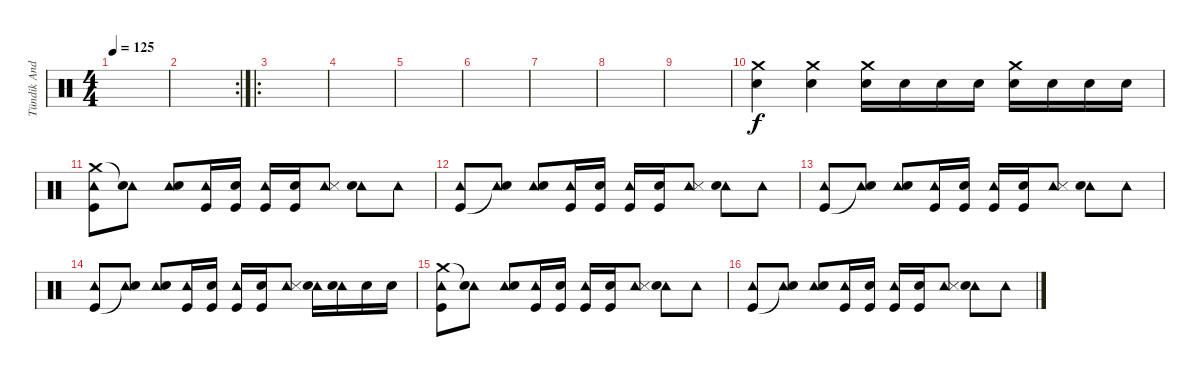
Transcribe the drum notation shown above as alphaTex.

\track ("Tündik András - Dob" "Tündik And") {instrument percussion}
\staff {score}
\articulation defaults
\ts (4 4)
\tempo 125
\clef neutral
\ks c
|
\rc 2
|
\ro
|
|
|
|
|
|
|
("Crash medium (hit)" "Snare (hit) 2").4 ("Crash medium (hit)" "Snare (hit) 2").4 ("Crash medium (hit)" "Snare (hit) 2").16 "Snare (hit) 2".16 "Snare (hit) 2".16 "Snare (hit) 2".16 ("Crash medium (hit)" "Snare (hit) 2").16 "Snare (hit) 2".16 "Snare (hit) 2".16 "Snare (hit) 2".16 |
("Tambourine (hit)" "Crash medium (hit)" "Kick (hit)").8 ("Tambourine (hit)" "Snare (hit)"{t}).8 ("Tambourine (hit)" "Snare (hit) 2").8 ("Tambourine (hit)" "Kick (hit)").16 ("Snare (hit) 2" "Kick (hit)").16 ("Tambourine (hit)" "Kick (hit)").16 ("Snare (hit) 2" "Kick (hit)").16 ("Tambourine (hit)" "Snare (side stick) 3").8 ("Tambourine (hit)" "Snare (hit) 2").8 "Tambourine (hit)".8 |
("Tambourine (hit)" "Kick (hit)").8 ("Tambourine (hit)" "Snare (hit)"{t}).8 ("Tambourine (hit)" "Snare (hit) 2").8 ("Tambourine (hit)" "Kick (hit)").16 ("Snare (hit) 2" "Kick (hit)").16 ("Tambourine (hit)" "Kick (hit)").16 ("Snare (hit) 2" "Kick (hit)").16 ("Tambourine (hit)" "Snare (side stick) 3").8 ("Tambourine (hit)" "Snare (hit) 2").8 "Tambourine (hit)".8 |
("Tambourine (hit)" "Kick (hit)").8 ("Tambourine (hit)" "Snare (hit)"{t}).8 ("Tambourine (hit)" "Snare (hit) 2").8 ("Tambourine (hit)" "Kick (hit)").16 ("Snare (hit) 2" "Kick (hit)").16 ("Tambourine (hit)" "Kick (hit)").16 ("Snare (hit) 2" "Kick (hit)").16 ("Tambourine (hit)" "Snare (side stick) 3").8 ("Tambourine (hit)" "Snare (hit) 2").8 "Tambourine (hit)".8 |
("Tambourine (hit)" "Kick (hit)").8 ("Tambourine (hit)" "Snare (hit)"{t}).8 ("Tambourine (hit)" "Snare (hit) 2").8 ("Tambourine (hit)" "Kick (hit)").16 ("Snare (hit) 2" "Kick (hit)").16 ("Tambourine (hit)" "Kick (hit)").16 ("Snare (hit) 2" "Kick (hit)").16 ("Tambourine (hit)" "Snare (side stick) 3").8 ("Tambourine (hit)" "Snare (hit) 2").16 ("Tambourine (hit)" "Snare (hit) 2").16 "Snare (hit) 2".16 "Snare (hit) 2".16 |
("Tambourine (hit)" "Crash medium (hit)" "Kick (hit)").8 ("Tambourine (hit)" "Snare (hit)"{t}).8 ("Tambourine (hit)" "Snare (hit) 2").8 ("Tambourine (hit)" "Kick (hit)").16 ("Snare (hit) 2" "Kick (hit)").16 ("Tambourine (hit)" "Kick (hit)").16 ("Snare (hit) 2" "Kick (hit)").16 ("Tambourine (hit)" "Snare (side stick) 3").8 ("Tambourine (hit)" "Snare (hit) 2").8 "Tambourine (hit)".8 |
("Tambourine (hit)" "Kick (hit)").8 ("Tambourine (hit)" "Snare (hit)"{t}).8 ("Tambourine (hit)" "Snare (hit) 2").8 ("Tambourine (hit)" "Kick (hit)").16 ("Snare (hit) 2" "Kick (hit)").16 ("Tambourine (hit)" "Kick (hit)").16 ("Snare (hit) 2" "Kick (hit)").16 ("Tambourine (hit)" "Snare (side stick) 3").8 ("Tambourine (hit)" "Snare (hit) 2").8 "Tambourine (hit)".8
